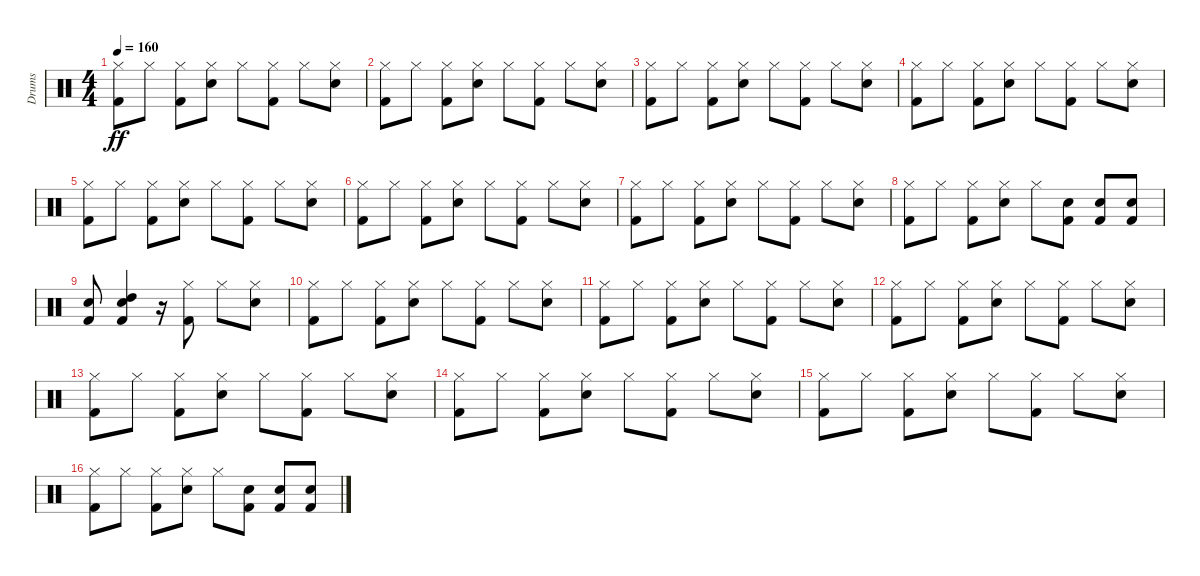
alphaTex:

\track ("Drums" "Drums") {instrument percussion}
\staff {score}
\articulation defaults
\ts (4 4)
\tempo 160
\clef neutral
\ks c
("Kick (hit) 2" "Hi-Hat (closed)").8{dy ff} "Hi-Hat (closed)".8 ("Kick (hit) 2" "Hi-Hat (closed)").8 ("Snare (hit) 2" "Hi-Hat (closed)").8 "Hi-Hat (closed)".8 ("Kick (hit) 2" "Hi-Hat (closed)").8 "Hi-Hat (closed)".8 ("Snare (hit) 2" "Hi-Hat (closed)").8 |
("Kick (hit) 2" "Hi-Hat (closed)").8 "Hi-Hat (closed)".8 ("Kick (hit) 2" "Hi-Hat (closed)").8 ("Snare (hit) 2" "Hi-Hat (closed)").8 "Hi-Hat (closed)".8 ("Kick (hit) 2" "Hi-Hat (closed)").8 "Hi-Hat (closed)".8 ("Snare (hit) 2" "Hi-Hat (closed)").8 |
("Kick (hit) 2" "Hi-Hat (closed)").8 "Hi-Hat (closed)".8 ("Kick (hit) 2" "Hi-Hat (closed)").8 ("Snare (hit) 2" "Hi-Hat (closed)").8 "Hi-Hat (closed)".8 ("Kick (hit) 2" "Hi-Hat (closed)").8 "Hi-Hat (closed)".8 ("Snare (hit) 2" "Hi-Hat (closed)").8 |
("Kick (hit) 2" "Hi-Hat (closed)").8 "Hi-Hat (closed)".8 ("Kick (hit) 2" "Hi-Hat (closed)").8 ("Snare (hit) 2" "Hi-Hat (closed)").8 "Hi-Hat (closed)".8 ("Kick (hit) 2" "Hi-Hat (closed)").8 "Hi-Hat (closed)".8 ("Snare (hit) 2" "Hi-Hat (closed)").8 |
("Kick (hit) 2" "Hi-Hat (closed)").8 "Hi-Hat (closed)".8 ("Kick (hit) 2" "Hi-Hat (closed)").8 ("Snare (hit) 2" "Hi-Hat (closed)").8 "Hi-Hat (closed)".8 ("Kick (hit) 2" "Hi-Hat (closed)").8 "Hi-Hat (closed)".8 ("Snare (hit) 2" "Hi-Hat (closed)").8 |
("Kick (hit) 2" "Hi-Hat (closed)").8 "Hi-Hat (closed)".8 ("Kick (hit) 2" "Hi-Hat (closed)").8 ("Snare (hit) 2" "Hi-Hat (closed)").8 "Hi-Hat (closed)".8 ("Kick (hit) 2" "Hi-Hat (closed)").8 "Hi-Hat (closed)".8 ("Snare (hit) 2" "Hi-Hat (closed)").8 |
("Kick (hit) 2" "Hi-Hat (closed)").8 "Hi-Hat (closed)".8 ("Kick (hit) 2" "Hi-Hat (closed)").8 ("Snare (hit) 2" "Hi-Hat (closed)").8 "Hi-Hat (closed)".8 ("Kick (hit) 2" "Hi-Hat (closed)").8 "Hi-Hat (closed)".8 ("Snare (hit) 2" "Hi-Hat (closed)").8 |
("Kick (hit) 2" "Hi-Hat (closed)").8 "Hi-Hat (closed)".8 ("Kick (hit) 2" "Hi-Hat (closed)").8 ("Snare (hit) 2" "Hi-Hat (closed)").8 "Hi-Hat (closed)".8 ("Kick (hit) 2" "Hand Clap (hit)").8 ("Kick (hit) 2" "Hand Clap (hit)").8 ("Kick (hit) 2" "Hand Clap (hit)").8 |
("Kick (hit) 2" "Hand Clap (hit)").8 ("Kick (hit) 2" "Hand Clap (hit)" "High Tom (hit)").4 r.16 ("Kick (hit) 2" "Hi-Hat (closed)").8 "Hi-Hat (closed)".8 ("Snare (hit) 2" "Hi-Hat (closed)").8 |
("Kick (hit) 2" "Hi-Hat (closed)").8 "Hi-Hat (closed)".8 ("Kick (hit) 2" "Hi-Hat (closed)").8 ("Snare (hit) 2" "Hi-Hat (closed)").8 "Hi-Hat (closed)".8 ("Kick (hit) 2" "Hi-Hat (closed)").8 "Hi-Hat (closed)".8 ("Snare (hit) 2" "Hi-Hat (closed)").8 |
("Kick (hit) 2" "Hi-Hat (closed)").8 "Hi-Hat (closed)".8 ("Kick (hit) 2" "Hi-Hat (closed)").8 ("Snare (hit) 2" "Hi-Hat (closed)").8 "Hi-Hat (closed)".8 ("Kick (hit) 2" "Hi-Hat (closed)").8 "Hi-Hat (closed)".8 ("Snare (hit) 2" "Hi-Hat (closed)").8 |
("Kick (hit) 2" "Hi-Hat (closed)").8 "Hi-Hat (closed)".8 ("Kick (hit) 2" "Hi-Hat (closed)").8 ("Snare (hit) 2" "Hi-Hat (closed)").8 "Hi-Hat (closed)".8 ("Kick (hit) 2" "Hi-Hat (closed)").8 "Hi-Hat (closed)".8 ("Snare (hit) 2" "Hi-Hat (closed)").8 |
("Kick (hit) 2" "Hi-Hat (closed)").8 "Hi-Hat (closed)".8 ("Kick (hit) 2" "Hi-Hat (closed)").8 ("Snare (hit) 2" "Hi-Hat (closed)").8 "Hi-Hat (closed)".8 ("Kick (hit) 2" "Hi-Hat (closed)").8 "Hi-Hat (closed)".8 ("Snare (hit) 2" "Hi-Hat (closed)").8 |
("Kick (hit) 2" "Hi-Hat (closed)").8 "Hi-Hat (closed)".8 ("Kick (hit) 2" "Hi-Hat (closed)").8 ("Snare (hit) 2" "Hi-Hat (closed)").8 "Hi-Hat (closed)".8 ("Kick (hit) 2" "Hi-Hat (closed)").8 "Hi-Hat (closed)".8 ("Snare (hit) 2" "Hi-Hat (closed)").8 |
("Kick (hit) 2" "Hi-Hat (closed)").8 "Hi-Hat (closed)".8 ("Kick (hit) 2" "Hi-Hat (closed)").8 ("Snare (hit) 2" "Hi-Hat (closed)").8 "Hi-Hat (closed)".8 ("Kick (hit) 2" "Hi-Hat (closed)").8 "Hi-Hat (closed)".8 ("Snare (hit) 2" "Hi-Hat (closed)").8 |
("Kick (hit) 2" "Hi-Hat (closed)").8 "Hi-Hat (closed)".8 ("Kick (hit) 2" "Hi-Hat (closed)").8 ("Snare (hit) 2" "Hi-Hat (closed)").8 "Hi-Hat (closed)".8 ("Kick (hit) 2" "Hand Clap (hit)").8 ("Kick (hit) 2" "Hand Clap (hit)").8 ("Kick (hit) 2" "Hand Clap (hit)").8
